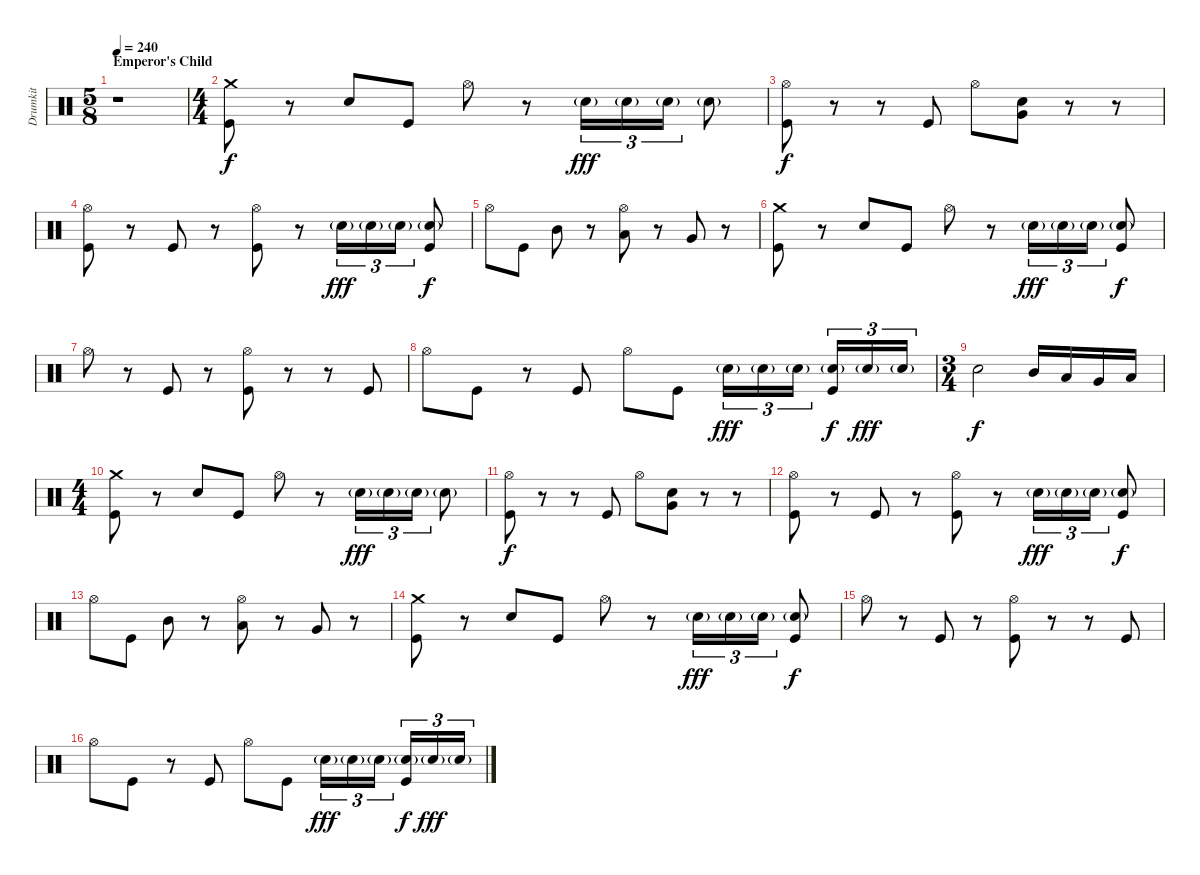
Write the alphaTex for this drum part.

\track ("Drumkit" "Drumkit") {instrument percussion}
\staff {score}
\articulation defaults
\ts (5 8)
\section ("" "Emperor's Child")
\tempo 240
\clef neutral
\ks c
r.1{dy f} |
\ts (4 4)
("Crash medium (hit)" "Kick (hit)").8 r.8 "Snare (hit) 2".8 "Kick (hit)".8 "Hi-Hat (open)".8 r.8 "Snare (hit) 2"{g}.16{tu (3 2) dy fff} "Snare (hit) 2"{g}.16{tu (3 2)} "Snare (hit) 2"{g}.16{tu (3 2)} "Snare (hit) 2"{g}.8 |
("Hi-Hat (open)" "Kick (hit)").8{dy f} r.8 r.8 "Kick (hit)".8 "Hi-Hat (open)".8 ("Snare (hit) 2" "Very Low Tom (hit)").8 r.8 r.8 |
("Hi-Hat (open)" "Kick (hit)").8 r.8 "Kick (hit)".8 r.8 ("Hi-Hat (open)" "Kick (hit)").8 r.8 "Snare (hit) 2"{g}.16{tu (3 2) dy fff} "Snare (hit) 2"{g}.16{tu (3 2)} "Snare (hit) 2"{g}.16{tu (3 2)} ("Snare (hit) 2"{g} "Kick (hit)").8{dy f} |
"Hi-Hat (open)".8 "Kick (hit)".8 "Mid Tom (hit)".8 r.8 ("Hi-Hat (open)" "Low Tom (hit)").8 r.8 "Very Low Tom (hit)".8 r.8 |
("Crash medium (hit)" "Kick (hit)").8 r.8 "Snare (hit) 2".8 "Kick (hit)".8 "Hi-Hat (open)".8 r.8 "Snare (hit) 2"{g}.16{tu (3 2) dy fff} "Snare (hit) 2"{g}.16{tu (3 2)} "Snare (hit) 2"{g}.16{tu (3 2)} ("Snare (hit) 2"{g} "Kick (hit)").8{dy f} |
"Hi-Hat (open)".8 r.8 "Kick (hit)".8 r.8 ("Hi-Hat (open)" "Kick (hit)").8 r.8 r.8 "Kick (hit)".8 |
"Hi-Hat (open)".8 "Kick (hit)".8 r.8 "Kick (hit)".8 "Hi-Hat (open)".8 "Kick (hit)".8 "Snare (hit) 2"{g}.16{tu (3 2) dy fff} "Snare (hit) 2"{g}.16{tu (3 2)} "Snare (hit) 2"{g}.16{tu (3 2)} ("Snare (hit) 2"{g} "Kick (hit)").16{tu (3 2) dy f} "Snare (hit) 2"{g}.16{tu (3 2) dy fff} "Snare (hit) 2"{g}.16{tu (3 2)} |
\ts (3 4)
"Snare (hit) 2".2{dy f} "Mid Tom (hit)".16 "Low Tom (hit)".16 "Very Low Tom (hit)".16 "Low Floor Tom (hit)".16 |
\ts (4 4)
("Crash medium (hit)" "Kick (hit)").8 r.8 "Snare (hit) 2".8 "Kick (hit)".8 "Hi-Hat (open)".8 r.8 "Snare (hit) 2"{g}.16{tu (3 2) dy fff} "Snare (hit) 2"{g}.16{tu (3 2)} "Snare (hit) 2"{g}.16{tu (3 2)} "Snare (hit) 2"{g}.8 |
("Hi-Hat (open)" "Kick (hit)").8{dy f} r.8 r.8 "Kick (hit)".8 "Hi-Hat (open)".8 ("Snare (hit) 2" "Very Low Tom (hit)").8 r.8 r.8 |
("Hi-Hat (open)" "Kick (hit)").8 r.8 "Kick (hit)".8 r.8 ("Hi-Hat (open)" "Kick (hit)").8 r.8 "Snare (hit) 2"{g}.16{tu (3 2) dy fff} "Snare (hit) 2"{g}.16{tu (3 2)} "Snare (hit) 2"{g}.16{tu (3 2)} ("Snare (hit) 2"{g} "Kick (hit)").8{dy f} |
"Hi-Hat (open)".8 "Kick (hit)".8 "Mid Tom (hit)".8 r.8 ("Hi-Hat (open)" "Low Tom (hit)").8 r.8 "Very Low Tom (hit)".8 r.8 |
("Crash medium (hit)" "Kick (hit)").8 r.8 "Snare (hit) 2".8 "Kick (hit)".8 "Hi-Hat (open)".8 r.8 "Snare (hit) 2"{g}.16{tu (3 2) dy fff} "Snare (hit) 2"{g}.16{tu (3 2)} "Snare (hit) 2"{g}.16{tu (3 2)} ("Snare (hit) 2"{g} "Kick (hit)").8{dy f} |
"Hi-Hat (open)".8 r.8 "Kick (hit)".8 r.8 ("Hi-Hat (open)" "Kick (hit)").8 r.8 r.8 "Kick (hit)".8 |
"Hi-Hat (open)".8 "Kick (hit)".8 r.8 "Kick (hit)".8 "Hi-Hat (open)".8 "Kick (hit)".8 "Snare (hit) 2"{g}.16{tu (3 2) dy fff} "Snare (hit) 2"{g}.16{tu (3 2)} "Snare (hit) 2"{g}.16{tu (3 2)} ("Snare (hit) 2"{g} "Kick (hit)").16{tu (3 2) dy f} "Snare (hit) 2"{g}.16{tu (3 2) dy fff} "Snare (hit) 2"{g}.16{tu (3 2)}
